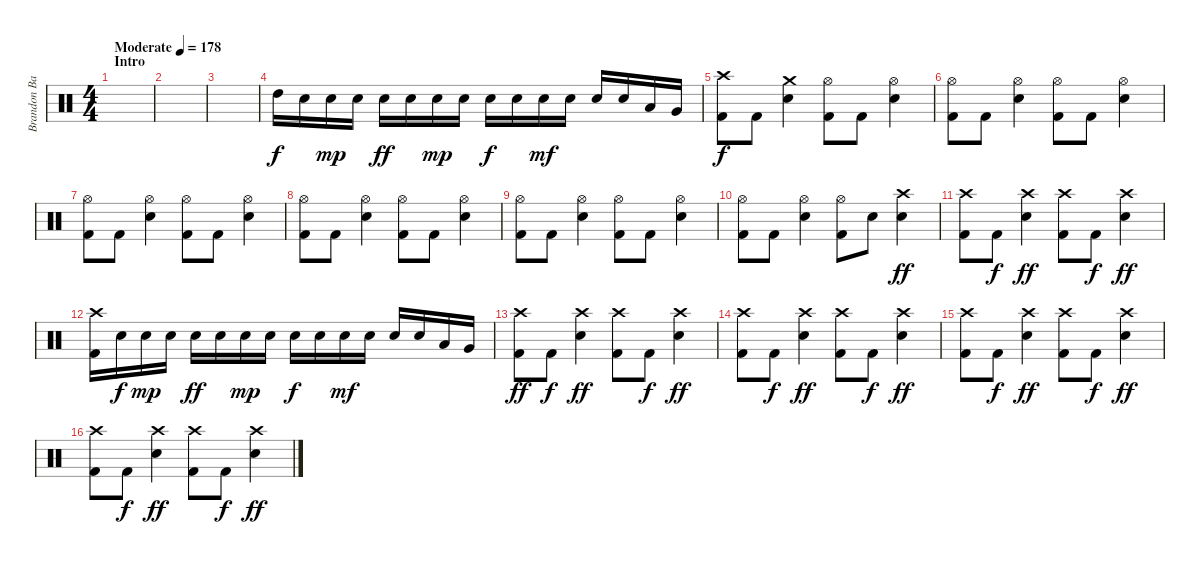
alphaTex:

\track ("Brandon Barnes - Drums" "Brandon Ba") {instrument percussion}
\staff {score}
\articulation defaults
\ts (4 4)
\section ("" "Intro")
\tempo (178 "Moderate")
\clef neutral
\ks c
|
|
|
"High Tom (hit)".16 "Snare (hit) 2".16 "Snare (hit) 2".16{dy mp} "Snare (hit) 2".16 "Snare (hit) 2".16{dy ff} "Snare (hit) 2".16 "Snare (hit) 2".16{dy mp} "Snare (hit) 2".16 "Snare (hit) 2".16{dy f} "Snare (hit) 2".16 "Snare (hit) 2".16{dy mf} "Snare (hit) 2".16 "Snare (hit) 2".16 "Snare (hit) 2".16 "Low Tom (hit)".16 "Very Low Tom (hit)".16 |
("Crash high (hit)" "Kick (hit) 2").8{dy f} "Kick (hit) 2".8 ("Snare (hit) 2" "Crash medium (hit)").4 ("Hi-Hat (open)" "Kick (hit) 2").8 "Kick (hit) 2".8 ("Snare (hit) 2" "Hi-Hat (open)").4 |
("Hi-Hat (open)" "Kick (hit) 2").8 "Kick (hit) 2".8 ("Snare (hit) 2" "Hi-Hat (open)").4 ("Hi-Hat (open)" "Kick (hit) 2").8 "Kick (hit) 2".8 ("Snare (hit) 2" "Hi-Hat (open)").4 |
("Hi-Hat (open)" "Kick (hit) 2").8 "Kick (hit) 2".8 ("Snare (hit) 2" "Hi-Hat (open)").4 ("Hi-Hat (open)" "Kick (hit) 2").8 "Kick (hit) 2".8 ("Snare (hit) 2" "Hi-Hat (open)").4 |
("Hi-Hat (open)" "Kick (hit) 2").8 "Kick (hit) 2".8 ("Snare (hit) 2" "Hi-Hat (open)").4 ("Hi-Hat (open)" "Kick (hit) 2").8 "Kick (hit) 2".8 ("Snare (hit) 2" "Hi-Hat (open)").4 |
("Hi-Hat (open)" "Kick (hit) 2").8 "Kick (hit) 2".8 ("Snare (hit) 2" "Hi-Hat (open)").4 ("Hi-Hat (open)" "Kick (hit) 2").8 "Kick (hit) 2".8 ("Snare (hit) 2" "Hi-Hat (open)").4 |
("Hi-Hat (open)" "Kick (hit) 2").8 "Kick (hit) 2".8 ("Snare (hit) 2" "Hi-Hat (open)").4 ("Hi-Hat (open)" "Kick (hit) 2").8 "Snare (hit) 2".8 ("Snare (hit) 2" "Crash high (hit)").4{dy ff} |
("Crash high (hit)" "Kick (hit) 2").8 "Kick (hit) 2".8{dy f} ("Snare (hit) 2" "Crash high (hit)").4{dy ff} ("Crash high (hit)" "Kick (hit) 2").8 "Kick (hit) 2".8{dy f} ("Snare (hit) 2" "Crash high (hit)").4{dy ff} |
("Crash high (hit)" "Kick (hit) 2").16 "Snare (hit) 2".16{dy f} "Snare (hit) 2".16{dy mp} "Snare (hit) 2".16 "Snare (hit) 2".16{dy ff} "Snare (hit) 2".16 "Snare (hit) 2".16{dy mp} "Snare (hit) 2".16 "Snare (hit) 2".16{dy f} "Snare (hit) 2".16 "Snare (hit) 2".16{dy mf} "Snare (hit) 2".16 "Snare (hit) 2".16 "Snare (hit) 2".16 "Low Tom (hit)".16 "Very Low Tom (hit)".16 |
("Crash high (hit)" "Kick (hit) 2").8{dy ff} "Kick (hit) 2".8{dy f} ("Snare (hit) 2" "Crash high (hit)").4{dy ff} ("Crash high (hit)" "Kick (hit) 2").8 "Kick (hit) 2".8{dy f} ("Snare (hit) 2" "Crash high (hit)").4{dy ff} |
("Crash high (hit)" "Kick (hit) 2").8 "Kick (hit) 2".8{dy f} ("Snare (hit) 2" "Crash high (hit)").4{dy ff} ("Crash high (hit)" "Kick (hit) 2").8 "Kick (hit) 2".8{dy f} ("Snare (hit) 2" "Crash high (hit)").4{dy ff} |
("Crash high (hit)" "Kick (hit) 2").8 "Kick (hit) 2".8{dy f} ("Snare (hit) 2" "Crash high (hit)").4{dy ff} ("Crash high (hit)" "Kick (hit) 2").8 "Kick (hit) 2".8{dy f} ("Snare (hit) 2" "Crash high (hit)").4{dy ff} |
("Crash high (hit)" "Kick (hit) 2").8 "Kick (hit) 2".8{dy f} ("Snare (hit) 2" "Crash high (hit)").4{dy ff} ("Crash high (hit)" "Kick (hit) 2").8 "Kick (hit) 2".8{dy f} ("Snare (hit) 2" "Crash high (hit)").4{dy ff}
